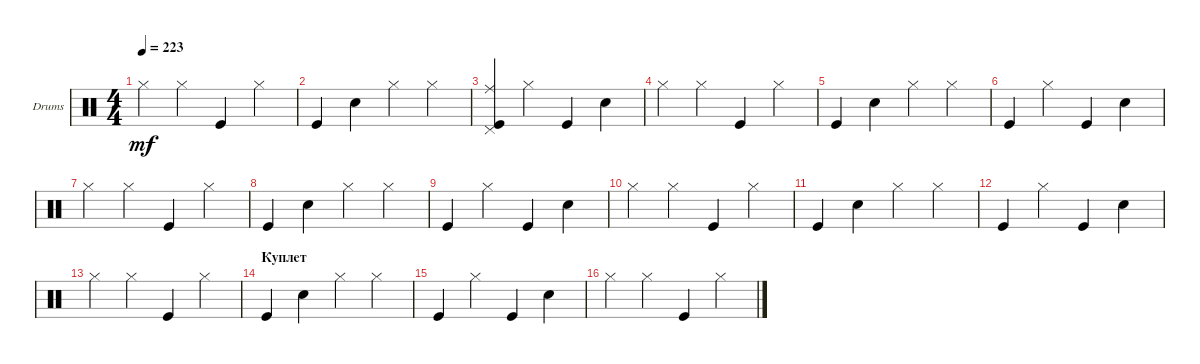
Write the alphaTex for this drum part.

\defaultSystemsLayout 4
\bracketExtendMode groupsimilarinstruments
\firstSystemTrackNameOrientation horizontal
\otherSystemsTrackNameOrientation horizontal
\track ("Drumkit" "Drums") {instrument percussion}
\staff {score}
\articulation defaults
\ts (4 4)
\tempo 223
\clef neutral
\ks c "Hi-Hat (closed)".4{dy mf} "Hi-Hat (closed)".4 "Kick (hit)".4 "Hi-Hat (closed)".4
|
"Kick (hit)".4 "Snare (hit) 2".4 "Hi-Hat (closed)".4 "Hi-Hat (closed)".4 |
("Kick (hit)" "Ride (middle)" "Pedal Hi-Hat (hit)").4 "Hi-Hat (closed)".4 "Kick (hit)".4 "Snare (hit) 2".4 |
"Hi-Hat (closed)".4 "Hi-Hat (closed)".4 "Kick (hit)".4 "Hi-Hat (closed)".4 |
"Kick (hit)".4 "Snare (hit) 2".4 "Hi-Hat (closed)".4 "Hi-Hat (closed)".4 |
"Kick (hit)".4 "Hi-Hat (closed)".4 "Kick (hit)".4 "Snare (hit) 2".4 |
"Hi-Hat (closed)".4 "Hi-Hat (closed)".4 "Kick (hit)".4 "Hi-Hat (closed)".4 |
"Kick (hit)".4 "Snare (hit) 2".4 "Hi-Hat (closed)".4 "Hi-Hat (closed)".4 |
"Kick (hit)".4 "Hi-Hat (closed)".4 "Kick (hit)".4 "Snare (hit) 2".4 |
"Hi-Hat (closed)".4 "Hi-Hat (closed)".4 "Kick (hit)".4 "Hi-Hat (closed)".4 |
"Kick (hit)".4 "Snare (hit) 2".4 "Hi-Hat (closed)".4 "Hi-Hat (closed)".4 |
"Kick (hit)".4 "Hi-Hat (closed)".4 "Kick (hit)".4 "Snare (hit) 2".4 |
"Hi-Hat (closed)".4 "Hi-Hat (closed)".4 "Kick (hit)".4 "Hi-Hat (closed)".4 |
\section ("" "Куплет")
"Kick (hit)".4 "Snare (hit) 2".4 "Hi-Hat (closed)".4 "Hi-Hat (closed)".4 |
"Kick (hit)".4 "Hi-Hat (closed)".4 "Kick (hit)".4 "Snare (hit) 2".4 |
"Hi-Hat (closed)".4 "Hi-Hat (closed)".4 "Kick (hit)".4 "Hi-Hat (closed)".4
